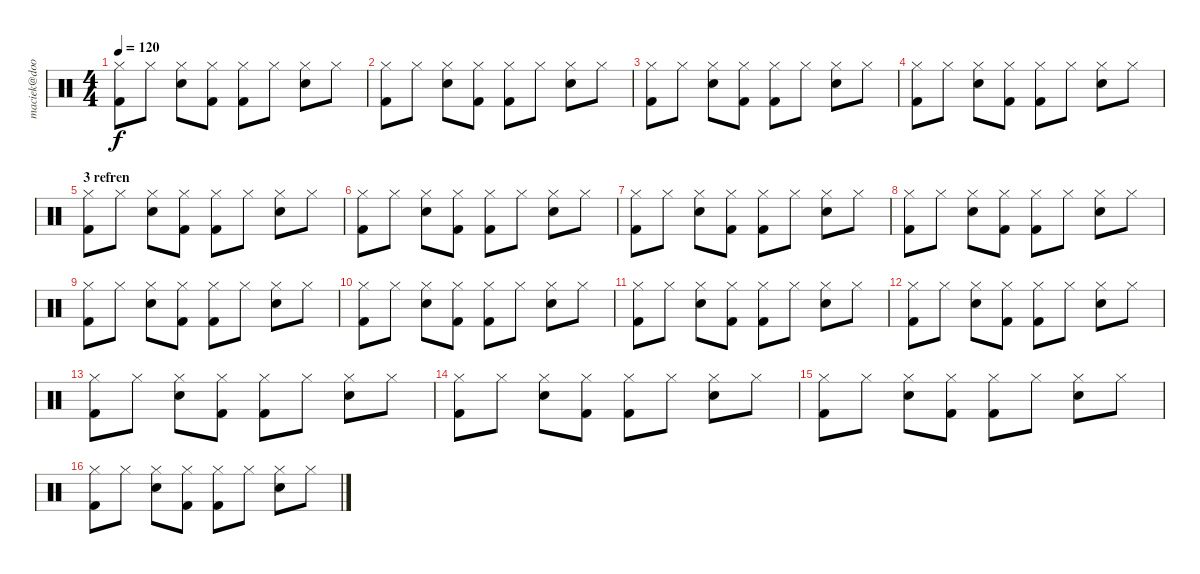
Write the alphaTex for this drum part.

\track ("maciek@doorpol.com" "maciek@doo") {instrument percussion}
\staff {score}
\articulation defaults
\ts (4 4)
\tempo 120
\clef neutral
\ks c
("Hi-Hat (closed)" "Kick (hit) 2").8{dy f} "Hi-Hat (closed)".8 ("Hi-Hat (closed)" "Snare (hit) 2").8 ("Hi-Hat (closed)" "Kick (hit) 2").8 ("Hi-Hat (closed)" "Kick (hit) 2").8 "Hi-Hat (closed)".8 ("Hi-Hat (closed)" "Snare (hit) 2").8 "Hi-Hat (closed)".8 |
("Hi-Hat (closed)" "Kick (hit) 2").8 "Hi-Hat (closed)".8 ("Hi-Hat (closed)" "Snare (hit) 2").8 ("Hi-Hat (closed)" "Kick (hit) 2").8 ("Hi-Hat (closed)" "Kick (hit) 2").8 "Hi-Hat (closed)".8 ("Hi-Hat (closed)" "Snare (hit) 2").8 "Hi-Hat (closed)".8 |
("Hi-Hat (closed)" "Kick (hit) 2").8 "Hi-Hat (closed)".8 ("Hi-Hat (closed)" "Snare (hit) 2").8 ("Hi-Hat (closed)" "Kick (hit) 2").8 ("Hi-Hat (closed)" "Kick (hit) 2").8 "Hi-Hat (closed)".8 ("Hi-Hat (closed)" "Snare (hit) 2").8 "Hi-Hat (closed)".8 |
("Hi-Hat (closed)" "Kick (hit) 2").8 "Hi-Hat (closed)".8 ("Hi-Hat (closed)" "Snare (hit) 2").8 ("Hi-Hat (closed)" "Kick (hit) 2").8 ("Hi-Hat (closed)" "Kick (hit) 2").8 "Hi-Hat (closed)".8 ("Hi-Hat (closed)" "Snare (hit) 2").8 "Hi-Hat (closed)".8 |
\section ("" "3 refren")
("Hi-Hat (closed)" "Kick (hit) 2").8 "Hi-Hat (closed)".8 ("Hi-Hat (closed)" "Snare (hit) 2").8 ("Hi-Hat (closed)" "Kick (hit) 2").8 ("Hi-Hat (closed)" "Kick (hit) 2").8 "Hi-Hat (closed)".8 ("Hi-Hat (closed)" "Snare (hit) 2").8 "Hi-Hat (closed)".8 |
("Hi-Hat (closed)" "Kick (hit) 2").8 "Hi-Hat (closed)".8 ("Hi-Hat (closed)" "Snare (hit) 2").8 ("Hi-Hat (closed)" "Kick (hit) 2").8 ("Hi-Hat (closed)" "Kick (hit) 2").8 "Hi-Hat (closed)".8 ("Hi-Hat (closed)" "Snare (hit) 2").8 "Hi-Hat (closed)".8 |
("Hi-Hat (closed)" "Kick (hit) 2").8 "Hi-Hat (closed)".8 ("Hi-Hat (closed)" "Snare (hit) 2").8 ("Hi-Hat (closed)" "Kick (hit) 2").8 ("Hi-Hat (closed)" "Kick (hit) 2").8 "Hi-Hat (closed)".8 ("Hi-Hat (closed)" "Snare (hit) 2").8 "Hi-Hat (closed)".8 |
("Hi-Hat (closed)" "Kick (hit) 2").8 "Hi-Hat (closed)".8 ("Hi-Hat (closed)" "Snare (hit) 2").8 ("Hi-Hat (closed)" "Kick (hit) 2").8 ("Hi-Hat (closed)" "Kick (hit) 2").8 "Hi-Hat (closed)".8 ("Hi-Hat (closed)" "Snare (hit) 2").8 "Hi-Hat (closed)".8 |
("Hi-Hat (closed)" "Kick (hit) 2").8 "Hi-Hat (closed)".8 ("Hi-Hat (closed)" "Snare (hit) 2").8 ("Hi-Hat (closed)" "Kick (hit) 2").8 ("Hi-Hat (closed)" "Kick (hit) 2").8 "Hi-Hat (closed)".8 ("Hi-Hat (closed)" "Snare (hit) 2").8 "Hi-Hat (closed)".8 |
("Hi-Hat (closed)" "Kick (hit) 2").8 "Hi-Hat (closed)".8 ("Hi-Hat (closed)" "Snare (hit) 2").8 ("Hi-Hat (closed)" "Kick (hit) 2").8 ("Hi-Hat (closed)" "Kick (hit) 2").8 "Hi-Hat (closed)".8 ("Hi-Hat (closed)" "Snare (hit) 2").8 "Hi-Hat (closed)".8 |
("Hi-Hat (closed)" "Kick (hit) 2").8 "Hi-Hat (closed)".8 ("Hi-Hat (closed)" "Snare (hit) 2").8 ("Hi-Hat (closed)" "Kick (hit) 2").8 ("Hi-Hat (closed)" "Kick (hit) 2").8 "Hi-Hat (closed)".8 ("Hi-Hat (closed)" "Snare (hit) 2").8 "Hi-Hat (closed)".8 |
("Hi-Hat (closed)" "Kick (hit) 2").8 "Hi-Hat (closed)".8 ("Hi-Hat (closed)" "Snare (hit) 2").8 ("Hi-Hat (closed)" "Kick (hit) 2").8 ("Hi-Hat (closed)" "Kick (hit) 2").8 "Hi-Hat (closed)".8 ("Hi-Hat (closed)" "Snare (hit) 2").8 "Hi-Hat (closed)".8 |
("Hi-Hat (closed)" "Kick (hit) 2").8 "Hi-Hat (closed)".8 ("Hi-Hat (closed)" "Snare (hit) 2").8 ("Hi-Hat (closed)" "Kick (hit) 2").8 ("Hi-Hat (closed)" "Kick (hit) 2").8 "Hi-Hat (closed)".8 ("Hi-Hat (closed)" "Snare (hit) 2").8 "Hi-Hat (closed)".8 |
("Hi-Hat (closed)" "Kick (hit) 2").8 "Hi-Hat (closed)".8 ("Hi-Hat (closed)" "Snare (hit) 2").8 ("Hi-Hat (closed)" "Kick (hit) 2").8 ("Hi-Hat (closed)" "Kick (hit) 2").8 "Hi-Hat (closed)".8 ("Hi-Hat (closed)" "Snare (hit) 2").8 "Hi-Hat (closed)".8 |
("Hi-Hat (closed)" "Kick (hit) 2").8 "Hi-Hat (closed)".8 ("Hi-Hat (closed)" "Snare (hit) 2").8 ("Hi-Hat (closed)" "Kick (hit) 2").8 ("Hi-Hat (closed)" "Kick (hit) 2").8 "Hi-Hat (closed)".8 ("Hi-Hat (closed)" "Snare (hit) 2").8 "Hi-Hat (closed)".8 |
("Hi-Hat (closed)" "Kick (hit) 2").8 "Hi-Hat (closed)".8 ("Hi-Hat (closed)" "Snare (hit) 2").8 ("Hi-Hat (closed)" "Kick (hit) 2").8 ("Hi-Hat (closed)" "Kick (hit) 2").8 "Hi-Hat (closed)".8 ("Hi-Hat (closed)" "Snare (hit) 2").8 "Hi-Hat (closed)".8
